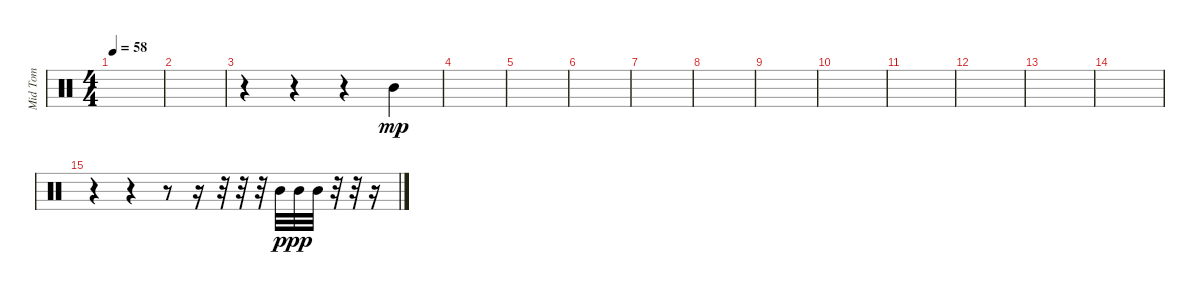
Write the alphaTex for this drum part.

\track ("Mid Tom" "Mid Tom") {instrument percussion}
\staff {score}
\articulation defaults
\ts (4 4)
\tempo 58
\clef neutral
\ks c
|
|
r.4 r.4 r.4 "Mid Tom (hit)".4{dy mp} |
|
|
|
|
|
|
|
|
|
|
|
r.4 r.4 r.8 r.16 r.32 r.32 r.32 "Mid Tom (hit)".32{dy p} "Mid Tom (hit)".32{dy pp} "Mid Tom (hit)".32 r.32 r.32 r.16
